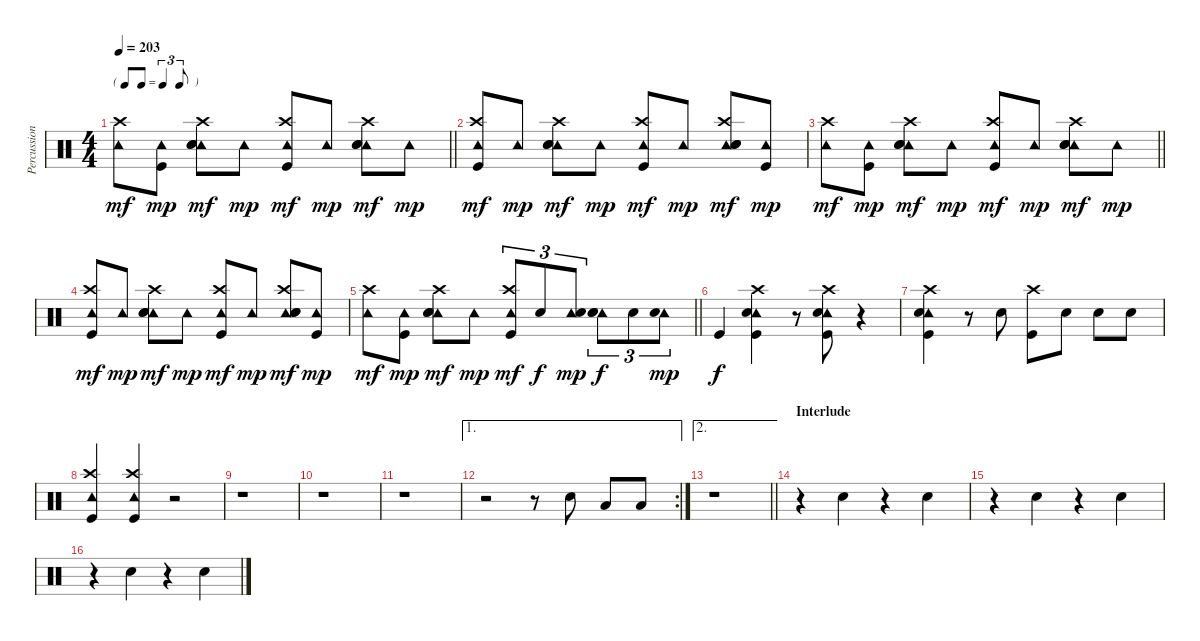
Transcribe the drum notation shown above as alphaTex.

\track ("Percussion" "Percussion") {instrument percussion}
\staff {score}
\articulation defaults
\ts (4 4)
\tf triplet8th
\tempo 203
\clef neutral
\barLineRight lightlight
\ks c
("Tambourine (hit)" "Crash high (hit)").8{dy mf} ("Tambourine (hit)" "Kick (hit)").8{dy mp} ("Tambourine (hit)" "Crash high (hit)" "Hand Clap (hit)" "Snare (hit) 2").8{dy mf} "Tambourine (hit)".8{dy mp} ("Tambourine (hit)" "Crash high (hit)" "Kick (hit)").8{dy mf} "Tambourine (hit)".8{dy mp} ("Tambourine (hit)" "Crash high (hit)" "Hand Clap (hit)" "Snare (hit) 2").8{dy mf} "Tambourine (hit)".8{dy mp} |
("Tambourine (hit)" "Crash high (hit)" "Kick (hit)").8{dy mf} "Tambourine (hit)".8{dy mp} ("Tambourine (hit)" "Crash high (hit)" "Hand Clap (hit)" "Snare (hit) 2").8{dy mf} "Tambourine (hit)".8{dy mp} ("Tambourine (hit)" "Crash high (hit)" "Kick (hit)").8{dy mf} "Tambourine (hit)".8{dy mp} ("Tambourine (hit)" "Crash high (hit)" "Hand Clap (hit)" "Snare (hit) 2").8{dy mf} ("Tambourine (hit)" "Kick (hit)").8{dy mp} |
\barLineRight lightlight
("Tambourine (hit)" "Crash high (hit)").8{dy mf} ("Tambourine (hit)" "Kick (hit)").8{dy mp} ("Tambourine (hit)" "Crash high (hit)" "Hand Clap (hit)" "Snare (hit) 2").8{dy mf} "Tambourine (hit)".8{dy mp} ("Tambourine (hit)" "Crash high (hit)" "Kick (hit)").8{dy mf} "Tambourine (hit)".8{dy mp} ("Tambourine (hit)" "Crash high (hit)" "Hand Clap (hit)" "Snare (hit) 2").8{dy mf} "Tambourine (hit)".8{dy mp} |
("Tambourine (hit)" "Crash high (hit)" "Kick (hit)").8{dy mf} "Tambourine (hit)".8{dy mp} ("Tambourine (hit)" "Crash high (hit)" "Hand Clap (hit)" "Snare (hit) 2").8{dy mf} "Tambourine (hit)".8{dy mp} ("Tambourine (hit)" "Crash high (hit)" "Kick (hit)").8{dy mf} "Tambourine (hit)".8{dy mp} ("Tambourine (hit)" "Crash high (hit)" "Hand Clap (hit)" "Snare (hit) 2").8{dy mf} ("Tambourine (hit)" "Kick (hit)").8{dy mp} |
\barLineRight lightlight
("Tambourine (hit)" "Crash high (hit)").8{dy mf} ("Tambourine (hit)" "Kick (hit)").8{dy mp} ("Tambourine (hit)" "Crash high (hit)" "Hand Clap (hit)" "Snare (hit) 2").8{dy mf} "Tambourine (hit)".8{dy mp} ("Tambourine (hit)" "Crash high (hit)" "Kick (hit)").8{tu (3 2) dy mf} "Snare (hit) 2".8{tu (3 2) dy f} ("Tambourine (hit)" "Snare (hit) 2").8{tu (3 2) dy mp} ("Tambourine (hit)" "Hand Clap (hit)" "Snare (hit) 2").8{tu (3 2) dy f} "Snare (hit) 2".8{tu (3 2)} ("Tambourine (hit)" "Snare (hit) 2").8{tu (3 2) dy mp} |
"Kick (hit)".4{dy f} ("Tambourine (hit)" "Crash high (hit)" "Snare (hit) 2" "Kick (hit)").4 r.8 ("Tambourine (hit)" "Crash high (hit)" "Snare (hit) 2" "Kick (hit)").8 r.4 |
("Tambourine (hit)" "Crash high (hit)" "Snare (hit) 2" "Kick (hit)").4 r.8 "Snare (hit) 2".8 ("Crash high (hit)" "Kick (hit)").8 "Snare (hit) 2".8 "Snare (hit) 2".8 "Snare (hit) 2".8 |
("Tambourine (hit)" "Crash high (hit)" "Kick (hit)").4 ("Tambourine (hit)" "Crash high (hit)" "Kick (hit)").4 r.2 |
r.1 |
r.1 |
r.1 |
\ae 1
\rc 2
r.2 r.8 "Snare (hit) 2".8 "Low Floor Tom (hit)".8 "Low Floor Tom (hit)".8 |
\ae 2
\barLineRight lightlight
r.1 |
\section ("" "Interlude")
r.4 "Hand Clap (hit)".4 r.4 "Hand Clap (hit)".4 |
r.4 "Hand Clap (hit)".4 r.4 "Hand Clap (hit)".4 |
r.4 "Hand Clap (hit)".4 r.4 "Hand Clap (hit)".4
